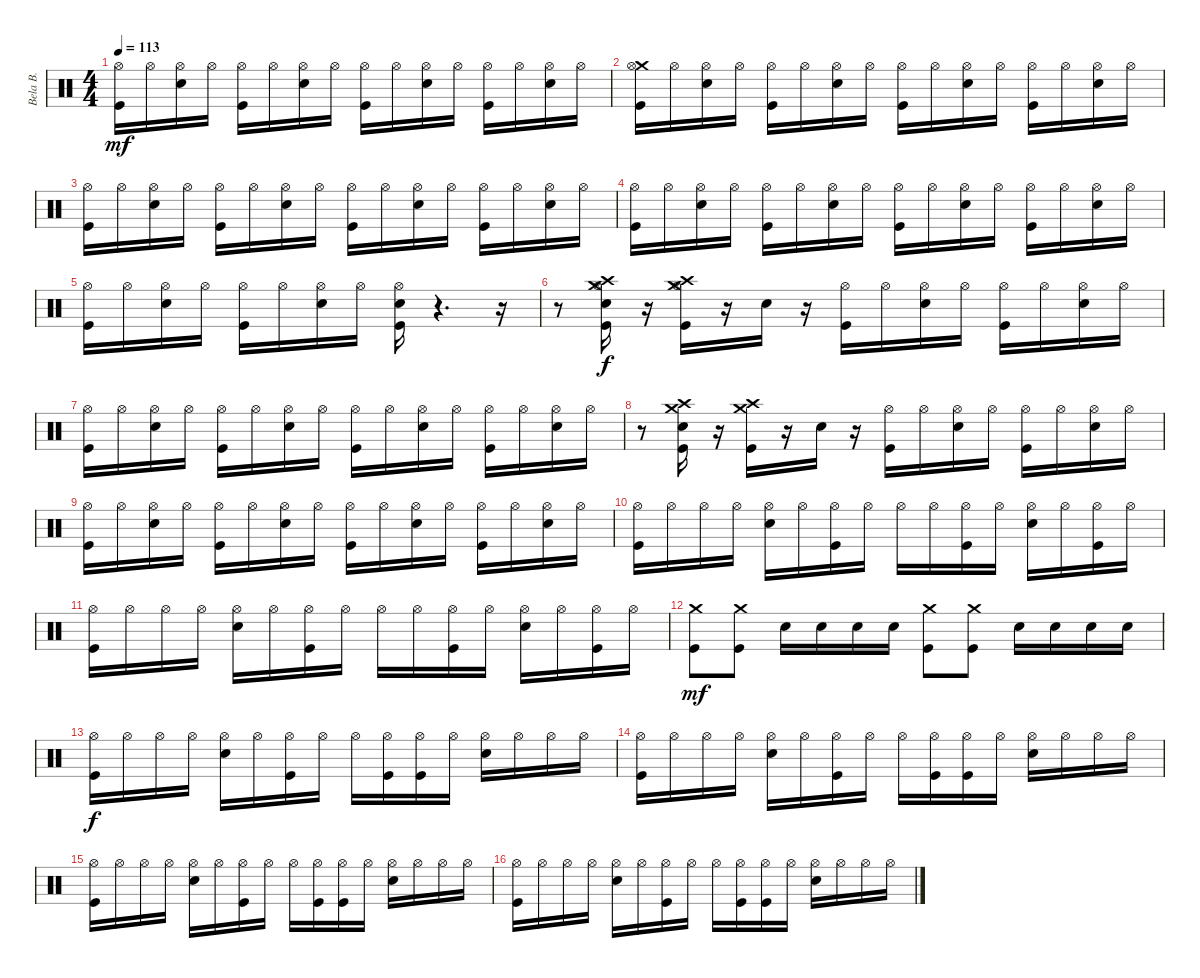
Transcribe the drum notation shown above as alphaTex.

\track ("Bela B." "Bela B.") {instrument percussion}
\staff {score}
\articulation defaults
\ts (4 4)
\tempo 113
\clef neutral
\ks c
("Hi-Hat (open)" "Kick (hit)").16{dy mf} "Hi-Hat (open)".16 ("Snare (hit) 2" "Hi-Hat (open)").16 "Hi-Hat (open)".16 ("Hi-Hat (open)" "Kick (hit)").16 "Hi-Hat (open)".16 ("Snare (hit) 2" "Hi-Hat (open)").16 "Hi-Hat (open)".16 ("Kick (hit)" "Hi-Hat (open)").16 "Hi-Hat (open)".16 ("Hi-Hat (open)" "Snare (hit) 2").16 "Hi-Hat (open)".16 ("Hi-Hat (open)" "Kick (hit)").16 "Hi-Hat (open)".16 ("Hi-Hat (open)" "Snare (hit) 2").16 "Hi-Hat (open)".16 |
("Crash medium (hit)" "Kick (hit)" "Hi-Hat (open)").16 "Hi-Hat (open)".16 ("Snare (hit) 2" "Hi-Hat (open)").16 "Hi-Hat (open)".16 ("Hi-Hat (open)" "Kick (hit)").16 "Hi-Hat (open)".16 ("Hi-Hat (open)" "Snare (hit) 2").16 "Hi-Hat (open)".16 ("Hi-Hat (open)" "Kick (hit)").16 "Hi-Hat (open)".16 ("Hi-Hat (open)" "Snare (hit) 2").16 "Hi-Hat (open)".16 ("Kick (hit)" "Hi-Hat (open)").16 "Hi-Hat (open)".16 ("Snare (hit) 2" "Hi-Hat (open)").16 "Hi-Hat (open)".16 |
("Kick (hit)" "Hi-Hat (open)").16 "Hi-Hat (open)".16 ("Snare (hit) 2" "Hi-Hat (open)").16 "Hi-Hat (open)".16 ("Hi-Hat (open)" "Kick (hit)").16 "Hi-Hat (open)".16 ("Hi-Hat (open)" "Snare (hit) 2").16 "Hi-Hat (open)".16 ("Hi-Hat (open)" "Kick (hit)").16 "Hi-Hat (open)".16 ("Hi-Hat (open)" "Snare (hit) 2").16 "Hi-Hat (open)".16 ("Kick (hit)" "Hi-Hat (open)").16 "Hi-Hat (open)".16 ("Hi-Hat (open)" "Snare (hit) 2").16 "Hi-Hat (open)".16 |
("Kick (hit)" "Hi-Hat (open)").16 "Hi-Hat (open)".16 ("Snare (hit) 2" "Hi-Hat (open)").16 "Hi-Hat (open)".16 ("Hi-Hat (open)" "Kick (hit)").16 "Hi-Hat (open)".16 ("Hi-Hat (open)" "Snare (hit) 2").16 "Hi-Hat (open)".16 ("Hi-Hat (open)" "Kick (hit)").16 "Hi-Hat (open)".16 ("Hi-Hat (open)" "Snare (hit) 2").16 "Hi-Hat (open)".16 ("Hi-Hat (open)" "Kick (hit)").16 "Hi-Hat (open)".16 ("Hi-Hat (open)" "Snare (hit) 2").16 "Hi-Hat (open)".16 |
("Kick (hit)" "Hi-Hat (open)").16 "Hi-Hat (open)".16 ("Hi-Hat (open)" "Snare (hit) 2").16 "Hi-Hat (open)".16 ("Hi-Hat (open)" "Kick (hit)").16 "Hi-Hat (open)".16 ("Hi-Hat (open)" "Snare (hit) 2").16 "Hi-Hat (open)".16 ("Kick (hit)" "Snare (hit) 2" "Hi-Hat (open)").16 r.4{d} r.16 |
r.8 ("Crash medium (hit)" "Crash high (hit)" "Kick (hit)" "Snare (hit) 2" "Hi-Hat (open)").16{dy f} r.16 ("Crash high (hit)" "Kick (hit)" "Hi-Hat (open)" "Crash medium (hit)").16 r.16 "Snare (hit) 2".16 r.16 ("Hi-Hat (open)" "Kick (hit)").16 "Hi-Hat (open)".16 ("Hi-Hat (open)" "Snare (hit) 2").16 "Hi-Hat (open)".16 ("Kick (hit)" "Hi-Hat (open)").16 "Hi-Hat (open)".16 ("Hi-Hat (open)" "Snare (hit) 2").16 "Hi-Hat (open)".16 |
("Hi-Hat (open)" "Kick (hit)").16 "Hi-Hat (open)".16 ("Snare (hit) 2" "Hi-Hat (open)").16 "Hi-Hat (open)".16 ("Hi-Hat (open)" "Kick (hit)").16 "Hi-Hat (open)".16 ("Hi-Hat (open)" "Snare (hit) 2").16 "Hi-Hat (open)".16 ("Hi-Hat (open)" "Kick (hit)").16 "Hi-Hat (open)".16 ("Hi-Hat (open)" "Snare (hit) 2").16 "Hi-Hat (open)".16 ("Hi-Hat (open)" "Kick (hit)").16 "Hi-Hat (open)".16 ("Snare (hit) 2" "Hi-Hat (open)").16 "Hi-Hat (open)".16 |
r.8 ("Snare (hit) 2" "Crash high (hit)" "Crash medium (hit)" "Kick (hit)").16 r.16 ("Crash medium (hit)" "Kick (hit)" "Crash high (hit)").16 r.16 "Snare (hit) 2".16 r.16 ("Kick (hit)" "Hi-Hat (open)").16 "Hi-Hat (open)".16 ("Hi-Hat (open)" "Snare (hit) 2").16 "Hi-Hat (open)".16 ("Hi-Hat (open)" "Kick (hit)").16 "Hi-Hat (open)".16 ("Hi-Hat (open)" "Snare (hit) 2").16 "Hi-Hat (open)".16 |
("Kick (hit)" "Hi-Hat (open)").16 "Hi-Hat (open)".16 ("Hi-Hat (open)" "Snare (hit) 2").16 "Hi-Hat (open)".16 ("Hi-Hat (open)" "Kick (hit)").16 "Hi-Hat (open)".16 ("Hi-Hat (open)" "Snare (hit) 2").16 "Hi-Hat (open)".16 ("Kick (hit)" "Hi-Hat (open)").16 "Hi-Hat (open)".16 ("Hi-Hat (open)" "Snare (hit) 2").16 "Hi-Hat (open)".16 ("Hi-Hat (open)" "Kick (hit)").16 "Hi-Hat (open)".16 ("Hi-Hat (open)" "Snare (hit) 2").16 "Hi-Hat (open)".16 |
("Hi-Hat (open)" "Kick (hit)").16 "Hi-Hat (open)".16 "Hi-Hat (open)".16 "Hi-Hat (open)".16 ("Hi-Hat (open)" "Snare (hit) 2").16 "Hi-Hat (open)".16 ("Hi-Hat (open)" "Kick (hit)").16 "Hi-Hat (open)".16 "Hi-Hat (open)".16 "Hi-Hat (open)".16 ("Hi-Hat (open)" "Kick (hit)").16 "Hi-Hat (open)".16 ("Snare (hit) 2" "Hi-Hat (open)").16 "Hi-Hat (open)".16 ("Kick (hit)" "Hi-Hat (open)").16 "Hi-Hat (open)".16 |
("Kick (hit)" "Hi-Hat (open)").16 "Hi-Hat (open)".16 "Hi-Hat (open)".16 "Hi-Hat (open)".16 ("Snare (hit) 2" "Hi-Hat (open)").16 "Hi-Hat (open)".16 ("Hi-Hat (open)" "Kick (hit)").16 "Hi-Hat (open)".16 "Hi-Hat (open)".16 "Hi-Hat (open)".16 ("Kick (hit)" "Hi-Hat (open)").16 "Hi-Hat (open)".16 ("Hi-Hat (open)" "Snare (hit) 2").16 "Hi-Hat (open)".16 ("Hi-Hat (open)" "Kick (hit)").16 "Hi-Hat (open)".16 |
("Kick (hit)" "Crash medium (hit)").8{dy mf} ("Kick (hit)" "Crash medium (hit)").8 "Snare (hit) 2".16 "Snare (hit) 2".16 "Snare (hit) 2".16 "Snare (hit) 2".16 ("Kick (hit)" "Crash medium (hit)").8 ("Kick (hit)" "Crash medium (hit)").8 "Snare (hit) 2".16 "Snare (hit) 2".16 "Snare (hit) 2".16 "Snare (hit) 2".16 |
("Hi-Hat (open)" "Kick (hit)").16{dy f} "Hi-Hat (open)".16 "Hi-Hat (open)".16 "Hi-Hat (open)".16 ("Hi-Hat (open)" "Snare (hit) 2").16 "Hi-Hat (open)".16 ("Hi-Hat (open)" "Kick (hit)").16 "Hi-Hat (open)".16 "Hi-Hat (open)".16 ("Hi-Hat (open)" "Kick (hit)").16 ("Hi-Hat (open)" "Kick (hit)").16 "Hi-Hat (open)".16 ("Hi-Hat (open)" "Snare (hit) 2").16 "Hi-Hat (open)".16 "Hi-Hat (open)".16 "Hi-Hat (open)".16 |
("Kick (hit)" "Hi-Hat (open)").16 "Hi-Hat (open)".16 "Hi-Hat (open)".16 "Hi-Hat (open)".16 ("Snare (hit) 2" "Hi-Hat (open)").16 "Hi-Hat (open)".16 ("Kick (hit)" "Hi-Hat (open)").16 "Hi-Hat (open)".16 "Hi-Hat (open)".16 ("Hi-Hat (open)" "Kick (hit)").16 ("Hi-Hat (open)" "Kick (hit)").16 "Hi-Hat (open)".16 ("Snare (hit) 2" "Hi-Hat (open)").16 "Hi-Hat (open)".16 "Hi-Hat (open)".16 "Hi-Hat (open)".16 |
("Kick (hit)" "Hi-Hat (open)").16 "Hi-Hat (open)".16 "Hi-Hat (open)".16 "Hi-Hat (open)".16 ("Hi-Hat (open)" "Snare (hit) 2").16 "Hi-Hat (open)".16 ("Kick (hit)" "Hi-Hat (open)").16 "Hi-Hat (open)".16 "Hi-Hat (open)".16 ("Hi-Hat (open)" "Kick (hit)").16 ("Kick (hit)" "Hi-Hat (open)").16 "Hi-Hat (open)".16 ("Hi-Hat (open)" "Snare (hit) 2").16 "Hi-Hat (open)".16 "Hi-Hat (open)".16 "Hi-Hat (open)".16 |
("Kick (hit)" "Hi-Hat (open)").16 "Hi-Hat (open)".16 "Hi-Hat (open)".16 "Hi-Hat (open)".16 ("Snare (hit) 2" "Hi-Hat (open)").16 "Hi-Hat (open)".16 ("Kick (hit)" "Hi-Hat (open)").16 "Hi-Hat (open)".16 "Hi-Hat (open)".16 ("Hi-Hat (open)" "Kick (hit)").16 ("Kick (hit)" "Hi-Hat (open)").16 "Hi-Hat (open)".16 ("Snare (hit) 2" "Hi-Hat (open)").16 "Hi-Hat (open)".16 "Hi-Hat (open)".16 "Hi-Hat (open)".16
